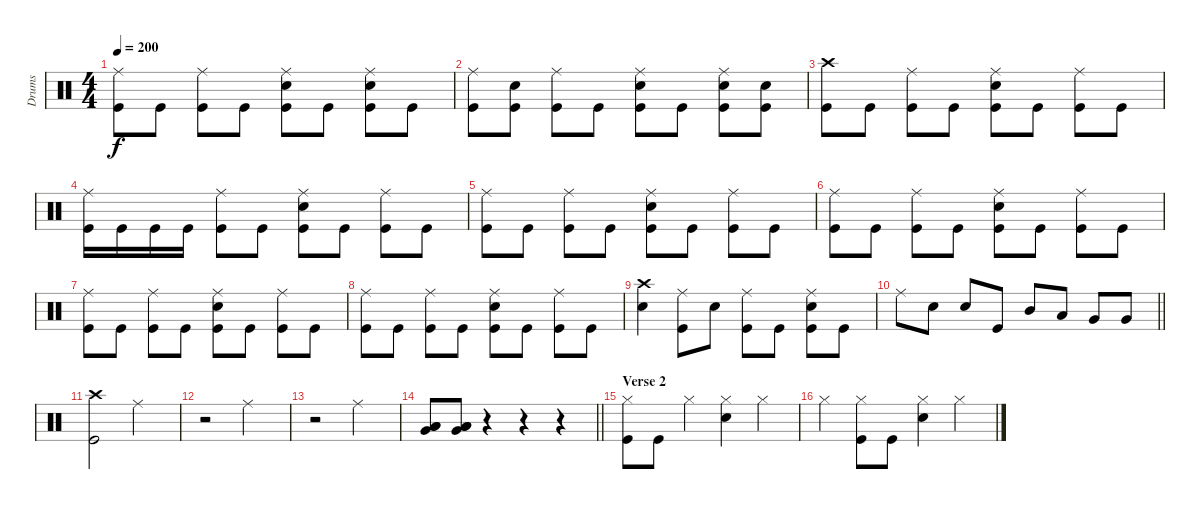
\track ("Drums" "Drums") {instrument percussion}
\staff {score}
\articulation defaults
\ts (4 4)
\tempo 200
\clef neutral
\ks c
("Ride (middle)" "Kick (hit)").8{dy f} "Kick (hit)".8 ("Ride (middle)" "Kick (hit)").8 "Kick (hit)".8 ("Ride (middle)" "Snare (hit) 2" "Kick (hit)").8 "Kick (hit)".8 ("Ride (middle)" "Snare (hit) 2" "Kick (hit)").8 "Kick (hit)".8 |
("Ride (middle)" "Kick (hit)").8 ("Snare (hit) 2" "Kick (hit)").8 ("Ride (middle)" "Kick (hit)").8 "Kick (hit)".8 ("Ride (middle)" "Snare (hit) 2" "Kick (hit)").8 "Kick (hit)".8 ("Ride (middle)" "Snare (hit) 2" "Kick (hit)").8 ("Snare (hit) 2" "Kick (hit)").8 |
("Crash high (hit)" "Kick (hit)").8 "Kick (hit)".8 ("Ride (middle)" "Kick (hit)").8 "Kick (hit)".8 ("Ride (middle)" "Snare (hit) 2" "Kick (hit)").8 "Kick (hit)".8 ("Ride (middle)" "Kick (hit)").8 "Kick (hit)".8 |
("Ride (middle)" "Kick (hit)").16 "Kick (hit)".16 "Kick (hit)".16 "Kick (hit)".16 ("Ride (middle)" "Kick (hit)").8 "Kick (hit)".8 ("Snare (hit) 2" "Ride (middle)" "Kick (hit)").8 "Kick (hit)".8 ("Ride (middle)" "Kick (hit)").8 "Kick (hit)".8 |
("Ride (middle)" "Kick (hit)").8 "Kick (hit)".8 ("Ride (middle)" "Kick (hit)").8 "Kick (hit)".8 ("Ride (middle)" "Snare (hit) 2" "Kick (hit)").8 "Kick (hit)".8 ("Ride (middle)" "Kick (hit)").8 "Kick (hit)".8 |
("Ride (middle)" "Kick (hit)").8 "Kick (hit)".8 ("Ride (middle)" "Kick (hit)").8 "Kick (hit)".8 ("Ride (middle)" "Snare (hit) 2" "Kick (hit)").8 "Kick (hit)".8 ("Ride (middle)" "Kick (hit)").8 "Kick (hit)".8 |
("Ride (middle)" "Kick (hit)").8 "Kick (hit)".8 ("Ride (middle)" "Kick (hit)").8 "Kick (hit)".8 ("Ride (middle)" "Snare (hit) 2" "Kick (hit)").8 "Kick (hit)".8 ("Ride (middle)" "Kick (hit)").8 "Kick (hit)".8 |
("Ride (middle)" "Kick (hit)").8 "Kick (hit)".8 ("Ride (middle)" "Kick (hit)").8 "Kick (hit)".8 ("Ride (middle)" "Snare (hit) 2" "Kick (hit)").8 "Kick (hit)".8 ("Ride (middle)" "Kick (hit)").8 "Kick (hit)".8 |
("Crash high (hit)" "Snare (hit) 2").4 ("Ride (middle)" "Kick (hit)").8 "Snare (hit) 2".8 ("Ride (middle)" "Kick (hit)").8 "Kick (hit)".8 ("Ride (middle)" "Snare (hit) 2" "Kick (hit)").8 "Kick (hit)".8 |
\barLineRight lightlight "Ride (middle)".8 "Snare (hit) 2".8 "Snare (hit) 2".8 "Kick (hit)".8 "Mid Tom (hit)".8 "Low Tom (hit)".8 "Very Low Tom (hit)".8 "Very Low Tom (hit)".8
|
\section ("" "")
("Kick (hit)" "Crash high (hit)").2 "Ride (middle)".2 |
r.2 "Ride (middle)".2 |
r.2 "Ride (middle)".2 |
\barLineRight lightlight
("Low Floor Tom (hit)" "Very Low Tom (hit)" "Low Tom (hit)").8 ("Very Low Tom (hit)" "Low Floor Tom (hit)" "Low Tom (hit)").8 r.4 r.4 r.4 |
\section ("" "Verse 2")
("Hi-Hat (closed)" "Kick (hit)").8 "Kick (hit)".8 "Hi-Hat (closed)".4 ("Hi-Hat (closed)" "Snare (hit) 2").4 "Hi-Hat (closed)".4 |
"Hi-Hat (closed)".4 ("Kick (hit)" "Hi-Hat (closed)").8 "Kick (hit)".8 ("Snare (hit) 2" "Hi-Hat (closed)").4 "Hi-Hat (closed)".4
